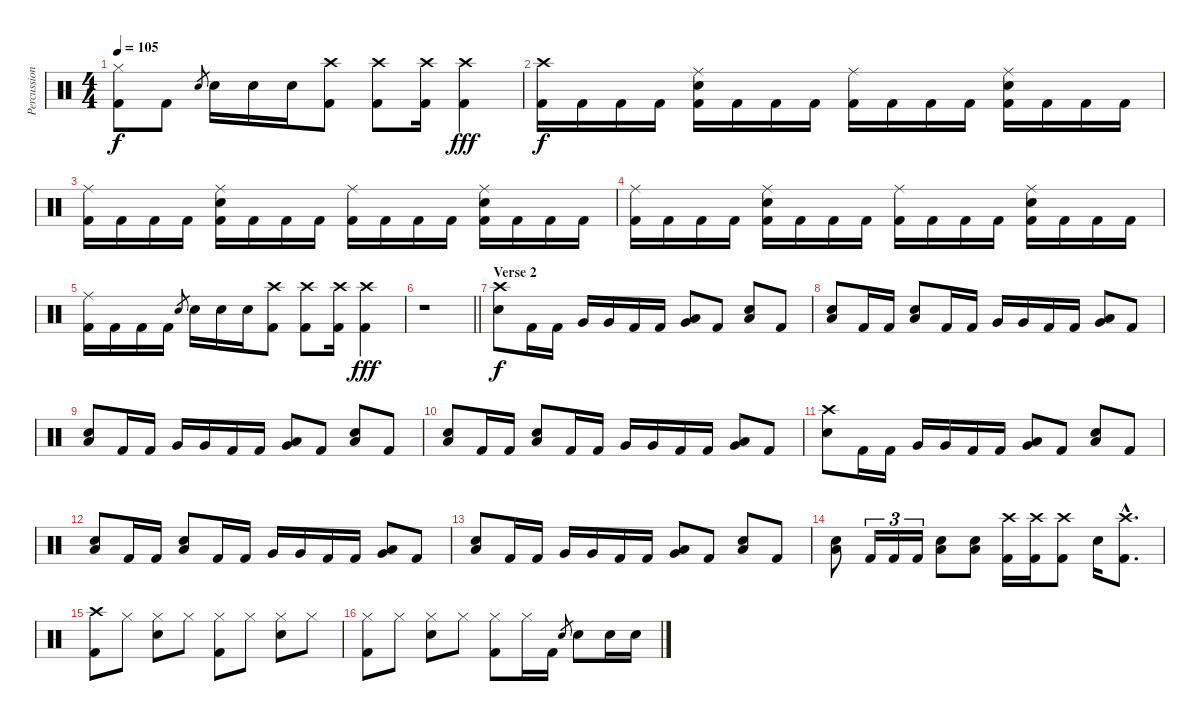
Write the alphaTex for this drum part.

\track ("Percussion" "Percussion") {instrument percussion}
\staff {score}
\articulation defaults
\ts (4 4)
\tempo 105
\clef neutral
\ks c
("Hi-Hat (closed)" "Kick (hit) 2").8{dy f} "Kick (hit) 2".8 "Snare (hit) 2".8{gr} "Snare (hit) 2".16 "Snare (hit) 2".16 "Snare (hit) 2".16 ("Crash high (hit)" "Kick (hit) 2").8 ("Crash high (hit)" "Kick (hit) 2").8 ("Crash high (hit)" "Kick (hit) 2").16 ("Crash high (hit)" "Kick (hit) 2").4{dy fff} |
("Crash high (hit)" "Kick (hit) 2").16{dy f} "Kick (hit) 2".16 "Kick (hit) 2".16 "Kick (hit) 2".16 ("Ride (middle)" "Snare (hit) 2" "Kick (hit) 2").16 "Kick (hit) 2".16 "Kick (hit) 2".16 "Kick (hit) 2".16 ("Ride (middle)" "Kick (hit) 2").16 "Kick (hit) 2".16 "Kick (hit) 2".16 "Kick (hit) 2".16 ("Ride (middle)" "Snare (hit) 2" "Kick (hit) 2").16 "Kick (hit) 2".16 "Kick (hit) 2".16 "Kick (hit) 2".16 |
("Ride (middle)" "Kick (hit) 2").16 "Kick (hit) 2".16 "Kick (hit) 2".16 "Kick (hit) 2".16 ("Ride (middle)" "Snare (hit) 2" "Kick (hit) 2").16 "Kick (hit) 2".16 "Kick (hit) 2".16 "Kick (hit) 2".16 ("Ride (middle)" "Kick (hit) 2").16 "Kick (hit) 2".16 "Kick (hit) 2".16 "Kick (hit) 2".16 ("Ride (middle)" "Snare (hit) 2" "Kick (hit) 2").16 "Kick (hit) 2".16 "Kick (hit) 2".16 "Kick (hit) 2".16 |
("Ride (middle)" "Kick (hit) 2").16 "Kick (hit) 2".16 "Kick (hit) 2".16 "Kick (hit) 2".16 ("Ride (middle)" "Snare (hit) 2" "Kick (hit) 2").16 "Kick (hit) 2".16 "Kick (hit) 2".16 "Kick (hit) 2".16 ("Ride (middle)" "Kick (hit) 2").16 "Kick (hit) 2".16 "Kick (hit) 2".16 "Kick (hit) 2".16 ("Ride (middle)" "Snare (hit) 2" "Kick (hit) 2").16 "Kick (hit) 2".16 "Kick (hit) 2".16 "Kick (hit) 2".16 |
("Ride (middle)" "Kick (hit) 2").16 "Kick (hit) 2".16 "Kick (hit) 2".16 "Kick (hit) 2".16 "Snare (hit) 2".8{gr} "Snare (hit) 2".16 "Snare (hit) 2".16 "Snare (hit) 2".16 ("Crash high (hit)" "Kick (hit) 2").8 ("Crash high (hit)" "Kick (hit) 2").8 ("Crash high (hit)" "Kick (hit) 2").16 ("Crash high (hit)" "Kick (hit) 2").4{dy fff} |
\barLineRight lightlight
r.1 |
\section ("" "Verse 2")
("Crash high (hit)" "Snare (hit) 2").8{dy f} "Kick (hit) 2".16 "Kick (hit) 2".16 "Very Low Tom (hit)".16 "Very Low Tom (hit)".16 "Kick (hit) 2".16 "Kick (hit) 2".16 ("Very Low Tom (hit)" "Low Floor Tom (hit)").8 "Kick (hit) 2".8 ("Low Floor Tom (hit)" "Snare (hit) 2").8 "Kick (hit) 2".8 |
("Low Floor Tom (hit)" "Snare (hit) 2").8 "Kick (hit) 2".16 "Kick (hit) 2".16 ("Low Floor Tom (hit)" "Snare (hit) 2").8 "Kick (hit) 2".16 "Kick (hit) 2".16 "Very Low Tom (hit)".16 "Very Low Tom (hit)".16 "Kick (hit) 2".16 "Kick (hit) 2".16 ("Very Low Tom (hit)" "Low Floor Tom (hit)").8 "Kick (hit) 2".8 |
("Low Floor Tom (hit)" "Snare (hit) 2").8 "Kick (hit) 2".16 "Kick (hit) 2".16 "Very Low Tom (hit)".16 "Very Low Tom (hit)".16 "Kick (hit) 2".16 "Kick (hit) 2".16 ("Very Low Tom (hit)" "Low Floor Tom (hit)").8 "Kick (hit) 2".8 ("Low Floor Tom (hit)" "Snare (hit) 2").8 "Kick (hit) 2".8 |
("Low Floor Tom (hit)" "Snare (hit) 2").8 "Kick (hit) 2".16 "Kick (hit) 2".16 ("Low Floor Tom (hit)" "Snare (hit) 2").8 "Kick (hit) 2".16 "Kick (hit) 2".16 "Very Low Tom (hit)".16 "Very Low Tom (hit)".16 "Kick (hit) 2".16 "Kick (hit) 2".16 ("Very Low Tom (hit)" "Low Floor Tom (hit)").8 "Kick (hit) 2".8 |
("Crash high (hit)" "Snare (hit) 2").8 "Kick (hit) 2".16 "Kick (hit) 2".16 "Very Low Tom (hit)".16 "Very Low Tom (hit)".16 "Kick (hit) 2".16 "Kick (hit) 2".16 ("Very Low Tom (hit)" "Low Floor Tom (hit)").8 "Kick (hit) 2".8 ("Low Floor Tom (hit)" "Snare (hit) 2").8 "Kick (hit) 2".8 |
("Low Floor Tom (hit)" "Snare (hit) 2").8 "Kick (hit) 2".16 "Kick (hit) 2".16 ("Low Floor Tom (hit)" "Snare (hit) 2").8 "Kick (hit) 2".16 "Kick (hit) 2".16 "Very Low Tom (hit)".16 "Very Low Tom (hit)".16 "Kick (hit) 2".16 "Kick (hit) 2".16 ("Very Low Tom (hit)" "Low Floor Tom (hit)").8 "Kick (hit) 2".8 |
("Low Floor Tom (hit)" "Snare (hit) 2").8 "Kick (hit) 2".16 "Kick (hit) 2".16 "Very Low Tom (hit)".16 "Very Low Tom (hit)".16 "Kick (hit) 2".16 "Kick (hit) 2".16 ("Very Low Tom (hit)" "Low Floor Tom (hit)").8 "Kick (hit) 2".8 ("Low Floor Tom (hit)" "Snare (hit) 2").8 "Kick (hit) 2".8 |
("Low Floor Tom (hit)" "Snare (hit) 2").8 "Kick (hit) 2".16{tu (3 2)} "Kick (hit) 2".16{tu (3 2)} "Kick (hit) 2".16{tu (3 2)} ("Low Floor Tom (hit)" "Snare (hit) 2").8 ("Low Floor Tom (hit)" "Snare (hit) 2").8 ("Crash high (hit)" "Kick (hit) 2").16 ("Crash high (hit)" "Kick (hit) 2").16 ("Crash high (hit)" "Kick (hit) 2").8 "Snare (hit) 2".16 ("Crash high (hit)"{hac} "Kick (hit) 2"{hac}).8{d} |
("Crash high (hit)" "Kick (hit) 2").8 "Hi-Hat (closed)".8 ("Hi-Hat (closed)" "Snare (hit) 2").8 "Hi-Hat (closed)".8 ("Hi-Hat (closed)" "Kick (hit) 2").8 "Hi-Hat (closed)".8 ("Hi-Hat (closed)" "Snare (hit) 2").8 "Hi-Hat (closed)".8 |
("Hi-Hat (closed)" "Kick (hit) 2").8 "Hi-Hat (closed)".8 ("Hi-Hat (closed)" "Snare (hit) 2").8 "Hi-Hat (closed)".8 ("Hi-Hat (closed)" "Kick (hit) 2").8 "Hi-Hat (closed)".16 "Kick (hit) 2".16 "Snare (hit) 2".8{gr} "Snare (hit) 2".8 "Snare (hit) 2".16 "Snare (hit) 2".16
